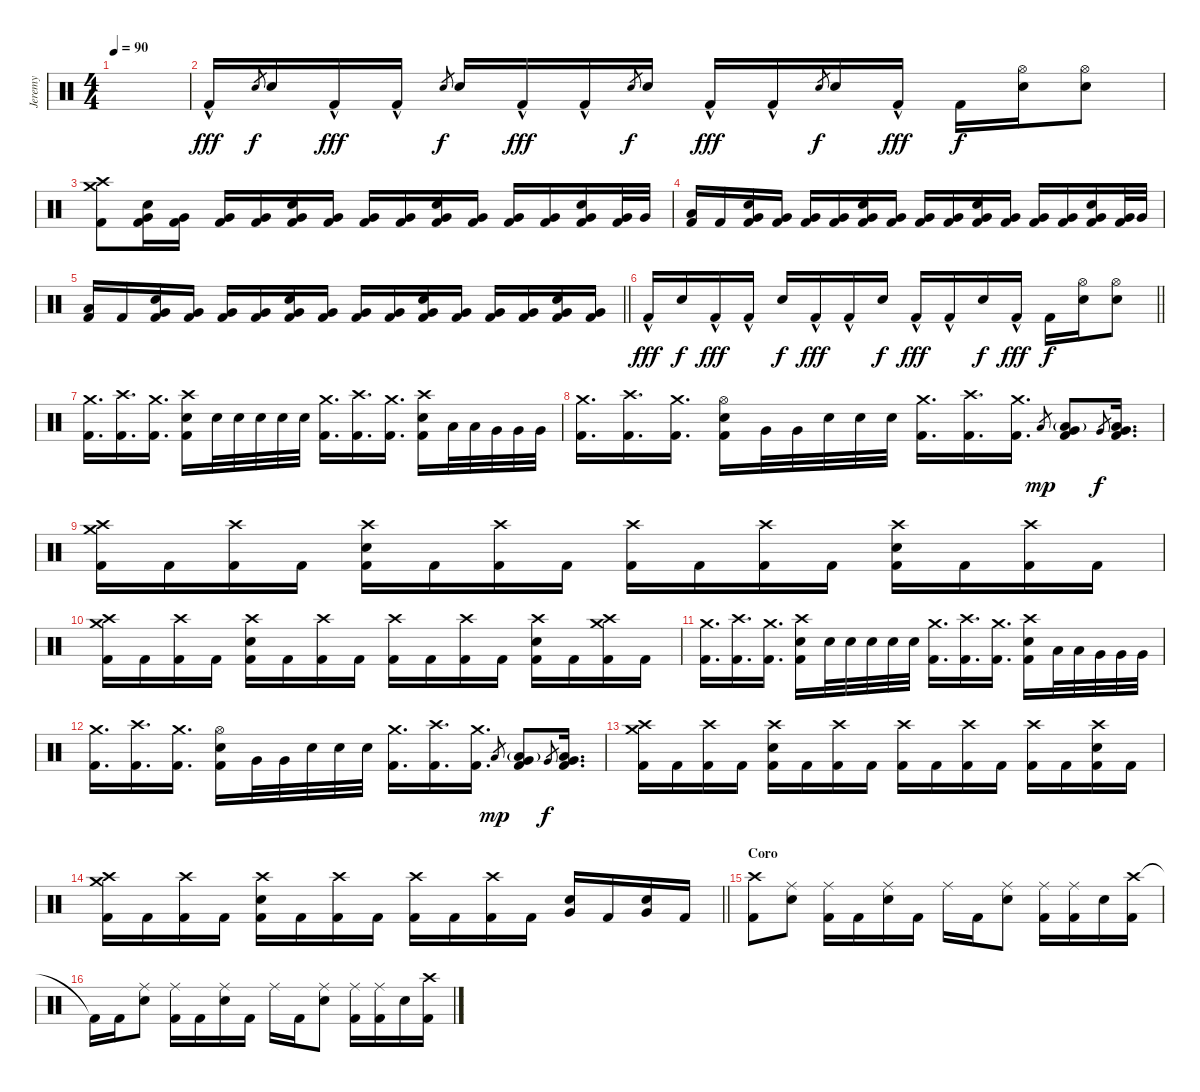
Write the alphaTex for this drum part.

\track ("Jeremy" "Jeremy") {instrument percussion}
\staff {score}
\articulation defaults
\ts (4 4)
\tempo 90
\clef neutral
\ks c
|
"Kick (hit) 2"{hac}.16{dy fff} "Snare (hit) 2".8{gr dy f} "Snare (hit) 2".16 "Kick (hit) 2"{hac}.16{dy fff} "Kick (hit) 2"{hac}.16 "Snare (hit) 2".8{gr dy f} "Snare (hit) 2".16 "Kick (hit) 2"{hac}.16{dy fff} "Kick (hit) 2"{hac}.16 "Snare (hit) 2".8{gr dy f} "Snare (hit) 2".16 "Kick (hit) 2"{hac}.16{dy fff} "Kick (hit) 2"{hac}.16 "Snare (hit) 2".8{gr dy f} "Snare (hit) 2".16 "Kick (hit) 2"{hac}.16{dy fff} "Kick (hit) 2".16{dy f} ("Snare (hit) 2" "Hi-Hat (open)").16 ("Hi-Hat (open)" "Snare (hit) 2").8 |
("Crash high (hit)" "Crash medium (hit)" "Kick (hit) 2").8 ("Snare (hit) 2" "Very Low Tom (hit)" "Kick (hit) 2").16 ("Very Low Tom (hit)" "Kick (hit) 2").16 ("Very Low Tom (hit)" "Kick (hit) 2").16 ("Very Low Tom (hit)" "Kick (hit) 2").16 ("Snare (hit) 2" "Very Low Tom (hit)" "Kick (hit) 2").16 ("Very Low Tom (hit)" "Kick (hit) 2").16 ("Very Low Tom (hit)" "Kick (hit) 2").16 ("Very Low Tom (hit)" "Kick (hit) 2").16 ("Snare (hit) 2" "Very Low Tom (hit)" "Kick (hit) 2").16 ("Very Low Tom (hit)" "Kick (hit) 2").16 ("Very Low Tom (hit)" "Kick (hit) 2").16 ("Very Low Tom (hit)" "Kick (hit) 2").16 ("Snare (hit) 2" "Very Low Tom (hit)" "Kick (hit) 2").16 ("Very Low Tom (hit)" "Kick (hit) 2").32 "Very Low Tom (hit)".32 |
("Low Floor Tom (hit)" "Kick (hit) 2").16 "Kick (hit) 2".16 ("Snare (hit) 2" "Very Low Tom (hit)" "Kick (hit) 2").16 ("Very Low Tom (hit)" "Kick (hit) 2").16 ("Very Low Tom (hit)" "Kick (hit) 2").16 ("Very Low Tom (hit)" "Kick (hit) 2").16 ("Snare (hit) 2" "Very Low Tom (hit)" "Kick (hit) 2").16 ("Very Low Tom (hit)" "Kick (hit) 2").16 ("Very Low Tom (hit)" "Kick (hit) 2").16 ("Very Low Tom (hit)" "Kick (hit) 2").16 ("Snare (hit) 2" "Very Low Tom (hit)" "Kick (hit) 2").16 ("Very Low Tom (hit)" "Kick (hit) 2").16 ("Very Low Tom (hit)" "Kick (hit) 2").16 ("Very Low Tom (hit)" "Kick (hit) 2").16 ("Snare (hit) 2" "Very Low Tom (hit)" "Kick (hit) 2").16 ("Very Low Tom (hit)" "Kick (hit) 2").32 "Very Low Tom (hit)".32 |
\barLineRight lightlight
("Low Floor Tom (hit)" "Kick (hit) 2").16 "Kick (hit) 2".16 ("Snare (hit) 2" "Very Low Tom (hit)" "Kick (hit) 2").16 ("Very Low Tom (hit)" "Kick (hit) 2").16 ("Very Low Tom (hit)" "Kick (hit) 2").16 ("Very Low Tom (hit)" "Kick (hit) 2").16 ("Snare (hit) 2" "Very Low Tom (hit)" "Kick (hit) 2").16 ("Very Low Tom (hit)" "Kick (hit) 2").16 ("Very Low Tom (hit)" "Kick (hit) 2").16 ("Very Low Tom (hit)" "Kick (hit) 2").16 ("Snare (hit) 2" "Very Low Tom (hit)" "Kick (hit) 2").16 ("Very Low Tom (hit)" "Kick (hit) 2").16 ("Very Low Tom (hit)" "Kick (hit) 2").16 ("Very Low Tom (hit)" "Kick (hit) 2").16 ("Snare (hit) 2" "Very Low Tom (hit)" "Kick (hit) 2").16 ("Very Low Tom (hit)" "Kick (hit) 2").16 |
\barLineRight lightlight "Kick (hit) 2"{hac}.16{dy fff} "Snare (hit) 2".16{dy f} "Kick (hit) 2"{hac}.16{dy fff} "Kick (hit) 2"{hac}.16 "Snare (hit) 2".16{dy f} "Kick (hit) 2"{hac}.16{dy fff} "Kick (hit) 2"{hac}.16 "Snare (hit) 2".16{dy f} "Kick (hit) 2"{hac}.16{dy fff} "Kick (hit) 2"{hac}.16 "Snare (hit) 2".16{dy f} "Kick (hit) 2"{hac}.16{dy fff} "Kick (hit) 2".16{dy f}
("Snare (hit) 2" "Hi-Hat (open)").16 ("Hi-Hat (open)" "Snare (hit) 2").8 |
("Crash medium (hit)" "Kick (hit) 2").16{d} ("Crash high (hit)" "Kick (hit) 2").16{d} ("Crash medium (hit)" "Kick (hit) 2").16{d} ("Crash high (hit)" "Snare (hit) 2" "Kick (hit) 2").16 "Snare (hit) 2".32 "Snare (hit) 2".32 "Snare (hit) 2".32 "Snare (hit) 2".32 "Snare (hit) 2".32 ("Crash medium (hit)" "Kick (hit) 2").16{d} ("Crash high (hit)" "Kick (hit) 2").16{d} ("Crash medium (hit)" "Kick (hit) 2").16{d} ("Crash high (hit)" "Snare (hit) 2" "Kick (hit) 2").16 "Low Tom (hit)".32 "Low Tom (hit)".32 "Very Low Tom (hit)".32 "Very Low Tom (hit)".32 "Very Low Tom (hit)".32 |
("Crash medium (hit)" "Kick (hit) 2").16{d} ("Crash high (hit)" "Kick (hit) 2").16{d} ("Crash medium (hit)" "Kick (hit) 2").16{d} ("Hi-Hat (open)" "Snare (hit) 2" "Kick (hit) 2").16 "Very Low Tom (hit)".32 "Very Low Tom (hit)".32 "Snare (hit) 2".32 "Snare (hit) 2".32 "Snare (hit) 2".32 ("Crash medium (hit)" "Kick (hit) 2").16{d} ("Crash high (hit)" "Kick (hit) 2").16{d} ("Crash medium (hit)" "Kick (hit) 2").16{d} "Low Tom (hit)".8{gr dy mp} ("Low Tom (hit)"{g} "Very Low Tom (hit)" "Kick (hit) 2").8 "Very Low Tom (hit)".8{gr dy f} ("Very Low Tom (hit)" "Low Floor Tom (hit)" "Kick (hit) 2").16{d} |
("Crash high (hit)" "Crash medium (hit)" "Kick (hit) 2").16 "Kick (hit) 2".16 ("Crash high (hit)" "Kick (hit) 2").16 "Kick (hit) 2".16 ("Crash high (hit)" "Snare (hit) 2" "Kick (hit) 2").16 "Kick (hit) 2".16 ("Crash high (hit)" "Kick (hit) 2").16 "Kick (hit) 2".16 ("Crash high (hit)" "Kick (hit) 2").16 "Kick (hit) 2".16 ("Crash high (hit)" "Kick (hit) 2").16 "Kick (hit) 2".16 ("Crash high (hit)" "Snare (hit) 2" "Kick (hit) 2").16 "Kick (hit) 2".16 ("Crash high (hit)" "Kick (hit) 2").16 "Kick (hit) 2".16 |
("Crash high (hit)" "Crash medium (hit)" "Kick (hit) 2").16 "Kick (hit) 2".16 ("Crash high (hit)" "Kick (hit) 2").16 "Kick (hit) 2".16 ("Crash high (hit)" "Snare (hit) 2" "Kick (hit) 2").16 "Kick (hit) 2".16 ("Crash high (hit)" "Kick (hit) 2").16 "Kick (hit) 2".16 ("Crash high (hit)" "Kick (hit) 2").16 "Kick (hit) 2".16 ("Crash high (hit)" "Kick (hit) 2").16 "Kick (hit) 2".16 ("Crash high (hit)" "Snare (hit) 2" "Kick (hit) 2").16 "Kick (hit) 2".16 ("Crash high (hit)" "Crash medium (hit)" "Kick (hit) 2").16 "Kick (hit) 2".16 |
("Crash medium (hit)" "Kick (hit) 2").16{d} ("Crash high (hit)" "Kick (hit) 2").16{d} ("Crash medium (hit)" "Kick (hit) 2").16{d} ("Crash high (hit)" "Snare (hit) 2" "Kick (hit) 2").16 "Snare (hit) 2".32 "Snare (hit) 2".32 "Snare (hit) 2".32 "Snare (hit) 2".32 "Snare (hit) 2".32 ("Crash medium (hit)" "Kick (hit) 2").16{d} ("Crash high (hit)" "Kick (hit) 2").16{d} ("Crash medium (hit)" "Kick (hit) 2").16{d} ("Crash high (hit)" "Snare (hit) 2" "Kick (hit) 2").16 "Low Tom (hit)".32 "Low Tom (hit)".32 "Very Low Tom (hit)".32 "Very Low Tom (hit)".32 "Very Low Tom (hit)".32 |
("Crash medium (hit)" "Kick (hit) 2").16{d} ("Crash high (hit)" "Kick (hit) 2").16{d} ("Crash medium (hit)" "Kick (hit) 2").16{d} ("Hi-Hat (open)" "Snare (hit) 2" "Kick (hit) 2").16 "Very Low Tom (hit)".32 "Very Low Tom (hit)".32 "Snare (hit) 2".32 "Snare (hit) 2".32 "Snare (hit) 2".32 ("Crash medium (hit)" "Kick (hit) 2").16{d} ("Crash high (hit)" "Kick (hit) 2").16{d} ("Crash medium (hit)" "Kick (hit) 2").16{d} "Low Tom (hit)".8{gr dy mp} ("Low Tom (hit)"{g} "Very Low Tom (hit)" "Kick (hit) 2").8 "Very Low Tom (hit)".8{gr dy f} ("Very Low Tom (hit)" "Low Floor Tom (hit)" "Kick (hit) 2").16{d} |
("Crash high (hit)" "Crash medium (hit)" "Kick (hit) 2").16 "Kick (hit) 2".16 ("Crash high (hit)" "Kick (hit) 2").16 "Kick (hit) 2".16 ("Crash high (hit)" "Snare (hit) 2" "Kick (hit) 2").16 "Kick (hit) 2".16 ("Crash high (hit)" "Kick (hit) 2").16 "Kick (hit) 2".16 ("Crash high (hit)" "Kick (hit) 2").16 "Kick (hit) 2".16 ("Crash high (hit)" "Kick (hit) 2").16 "Kick (hit) 2".16 ("Crash high (hit)" "Kick (hit) 2").16 "Kick (hit) 2".16 ("Crash high (hit)" "Snare (hit) 2" "Kick (hit) 2").16 "Kick (hit) 2".16 |
\barLineRight lightlight
("Crash high (hit)" "Crash medium (hit)" "Kick (hit) 2").16 "Kick (hit) 2".16 ("Crash high (hit)" "Kick (hit) 2").16 "Kick (hit) 2".16 ("Crash high (hit)" "Snare (hit) 2" "Kick (hit) 2").16 "Kick (hit) 2".16 ("Crash high (hit)" "Kick (hit) 2").16 "Kick (hit) 2".16 ("Crash high (hit)" "Kick (hit) 2").16 "Kick (hit) 2".16 ("Crash high (hit)" "Kick (hit) 2").16 "Kick (hit) 2".16 ("Snare (hit) 2" "Very Low Tom (hit)").16 "Kick (hit) 2".16 ("Snare (hit) 2" "Very Low Tom (hit)").16 "Kick (hit) 2".16 |
\section ("" "Coro")
("Crash high (hit)" "Kick (hit) 2").8 ("Ride (middle)" "Snare (hit) 2").8 ("Ride (middle)" "Kick (hit) 2").16 "Kick (hit) 2".16 ("Ride (middle)" "Snare (hit) 2").16 "Kick (hit) 2".16 "Ride (middle)".16 "Kick (hit) 2".16 ("Ride (middle)" "Snare (hit) 2").8 ("Ride (middle)" "Kick (hit) 2").16 ("Ride (middle)" "Kick (hit) 2").16 "Snare (hit) 2".16 ("Crash high (hit)" "Kick (hit) 2").16 |
"Kick (hit) 2"{t}.16 "Kick (hit) 2".16 ("Ride (middle)" "Snare (hit) 2").8 ("Ride (middle)" "Kick (hit) 2").16 "Kick (hit) 2".16 ("Ride (middle)" "Snare (hit) 2").16 "Kick (hit) 2".16 "Ride (middle)".16 "Kick (hit) 2".16 ("Ride (middle)" "Snare (hit) 2").8 ("Ride (middle)" "Kick (hit) 2").16 ("Ride (middle)" "Kick (hit) 2").16 "Snare (hit) 2".16 ("Crash high (hit)" "Kick (hit) 2").16
